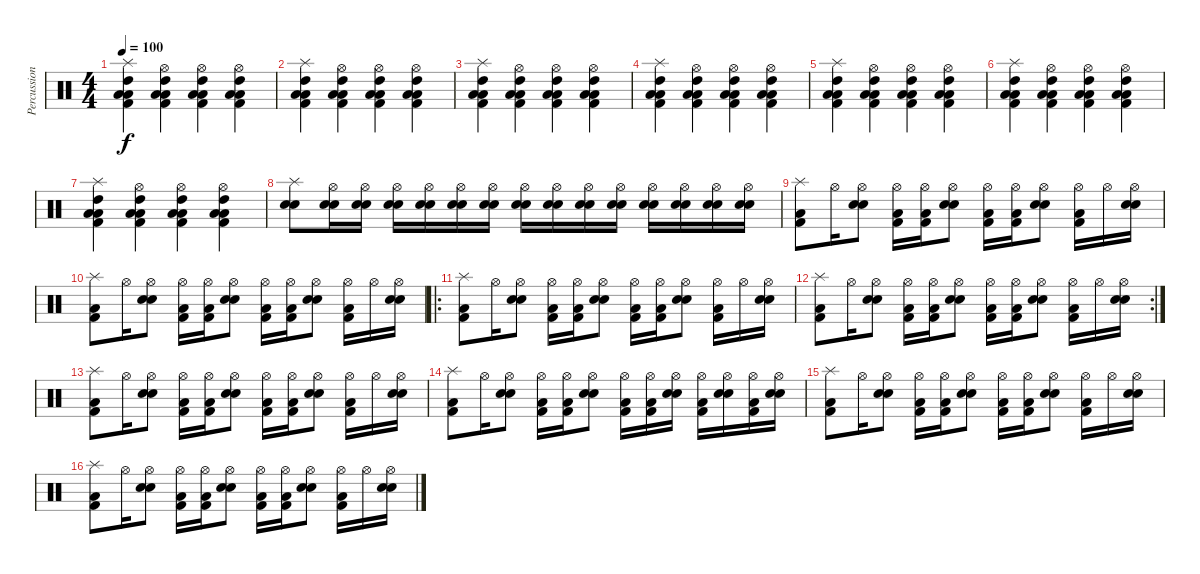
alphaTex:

\track ("Percussions" "Percussion") {instrument percussion}
\staff {score}
\articulation defaults
\ts (4 4)
\tempo 100
\clef neutral
\ks c
("Splash (hit)" "Kick (hit) 2" "Low Floor Tom (hit)" "High Tom (hit)" "Low Floor Tom (hit)").4{dy f} ("Hi-Hat (open)" "Kick (hit) 2" "Low Floor Tom (hit)" "High Tom (hit)" "Low Floor Tom (hit)").4 ("Hi-Hat (open)" "Kick (hit) 2" "Low Floor Tom (hit)" "High Tom (hit)" "Low Floor Tom (hit)").4 ("Hi-Hat (open)" "Kick (hit) 2" "Low Floor Tom (hit)" "High Tom (hit)" "Low Floor Tom (hit)").4 |
("Splash (hit)" "Kick (hit) 2" "Low Floor Tom (hit)" "High Tom (hit)" "Low Floor Tom (hit)").4 ("Hi-Hat (open)" "Kick (hit) 2" "Low Floor Tom (hit)" "High Tom (hit)" "Low Floor Tom (hit)").4 ("Hi-Hat (open)" "Kick (hit) 2" "Low Floor Tom (hit)" "High Tom (hit)" "Low Floor Tom (hit)").4 ("Hi-Hat (open)" "Kick (hit) 2" "Low Floor Tom (hit)" "High Tom (hit)" "Low Floor Tom (hit)").4 |
("Splash (hit)" "Kick (hit) 2" "Low Floor Tom (hit)" "High Tom (hit)" "Low Floor Tom (hit)").4 ("Hi-Hat (open)" "Kick (hit) 2" "Low Floor Tom (hit)" "High Tom (hit)" "Low Floor Tom (hit)").4 ("Hi-Hat (open)" "Kick (hit) 2" "Low Floor Tom (hit)" "High Tom (hit)" "Low Floor Tom (hit)").4 ("Hi-Hat (open)" "Kick (hit) 2" "Low Floor Tom (hit)" "High Tom (hit)" "Low Floor Tom (hit)").4 |
("Splash (hit)" "Kick (hit) 2" "Low Floor Tom (hit)" "High Tom (hit)" "Low Floor Tom (hit)").4 ("Hi-Hat (open)" "Kick (hit) 2" "Low Floor Tom (hit)" "High Tom (hit)" "Low Floor Tom (hit)").4 ("Hi-Hat (open)" "Kick (hit) 2" "Low Floor Tom (hit)" "High Tom (hit)" "Low Floor Tom (hit)").4 ("Hi-Hat (open)" "Kick (hit) 2" "Low Floor Tom (hit)" "High Tom (hit)" "Low Floor Tom (hit)").4 |
("Splash (hit)" "Kick (hit) 2" "Low Floor Tom (hit)" "High Tom (hit)" "Low Floor Tom (hit)").4 ("Hi-Hat (open)" "Kick (hit) 2" "Low Floor Tom (hit)" "High Tom (hit)" "Low Floor Tom (hit)").4 ("Hi-Hat (open)" "Kick (hit) 2" "Low Floor Tom (hit)" "High Tom (hit)" "Low Floor Tom (hit)").4 ("Hi-Hat (open)" "Kick (hit) 2" "Low Floor Tom (hit)" "High Tom (hit)" "Low Floor Tom (hit)").4 |
("Splash (hit)" "Kick (hit) 2" "Low Floor Tom (hit)" "High Tom (hit)" "Low Floor Tom (hit)").4 ("Hi-Hat (open)" "Kick (hit) 2" "Low Floor Tom (hit)" "High Tom (hit)" "Low Floor Tom (hit)").4 ("Hi-Hat (open)" "Kick (hit) 2" "Low Floor Tom (hit)" "High Tom (hit)" "Low Floor Tom (hit)").4 ("Hi-Hat (open)" "Kick (hit) 2" "Low Floor Tom (hit)" "High Tom (hit)" "Low Floor Tom (hit)").4 |
("Splash (hit)" "Kick (hit) 2" "Low Floor Tom (hit)" "High Tom (hit)" "Low Floor Tom (hit)").4 ("Hi-Hat (open)" "Kick (hit) 2" "Low Floor Tom (hit)" "High Tom (hit)" "Low Floor Tom (hit)").4 ("Hi-Hat (open)" "Kick (hit) 2" "Low Floor Tom (hit)" "High Tom (hit)" "Low Floor Tom (hit)").4 ("Hi-Hat (open)" "Kick (hit) 2" "Low Floor Tom (hit)" "High Tom (hit)" "Low Floor Tom (hit)").4 |
("Splash (hit)" "Snare (hit) 2" "Electric Snare (hit)").8 ("Hi-Hat (open)" "Snare (hit) 2" "Electric Snare (hit)").16 ("Hi-Hat (open)" "Snare (hit) 2" "Electric Snare (hit)").16 ("Hi-Hat (open)" "Snare (hit) 2" "Electric Snare (hit)").16 ("Hi-Hat (open)" "Snare (hit) 2" "Electric Snare (hit)").16 ("Hi-Hat (open)" "Snare (hit) 2" "Electric Snare (hit)").16 ("Hi-Hat (open)" "Snare (hit) 2" "Electric Snare (hit)").16 ("Hi-Hat (open)" "Snare (hit) 2" "Electric Snare (hit)").16 ("Hi-Hat (open)" "Snare (hit) 2" "Electric Snare (hit)").16 ("Hi-Hat (open)" "Snare (hit) 2" "Electric Snare (hit)").16 ("Hi-Hat (open)" "Snare (hit) 2" "Electric Snare (hit)").16 ("Hi-Hat (open)" "Snare (hit) 2" "Electric Snare (hit)").16 ("Hi-Hat (open)" "Snare (hit) 2" "Electric Snare (hit)").16 ("Hi-Hat (open)" "Snare (hit) 2" "Electric Snare (hit)").16 ("Hi-Hat (open)" "Snare (hit) 2" "Electric Snare (hit)").16 |
("Splash (hit)" "Kick (hit) 2" "Low Floor Tom (hit)").8 "Hi-Hat (open)".16 ("Hi-Hat (open)" "Snare (hit) 2" "Electric Snare (hit)").8 ("Hi-Hat (open)" "Kick (hit) 2" "Low Floor Tom (hit)").16 ("Hi-Hat (open)" "Kick (hit) 2" "Low Floor Tom (hit)").16 ("Hi-Hat (open)" "Snare (hit) 2" "Electric Snare (hit)").8 ("Hi-Hat (open)" "Kick (hit) 2" "Low Floor Tom (hit)").16 ("Hi-Hat (open)" "Kick (hit) 2" "Low Floor Tom (hit)").16 ("Hi-Hat (open)" "Snare (hit) 2" "Electric Snare (hit)").8 ("Hi-Hat (open)" "Kick (hit) 2" "Low Floor Tom (hit)").16 "Hi-Hat (open)".16 ("Hi-Hat (open)" "Snare (hit) 2" "Electric Snare (hit)").16 |
("Splash (hit)" "Kick (hit) 2" "Low Floor Tom (hit)").8 "Hi-Hat (open)".16 ("Hi-Hat (open)" "Snare (hit) 2" "Electric Snare (hit)").8 ("Hi-Hat (open)" "Kick (hit) 2" "Low Floor Tom (hit)").16 ("Hi-Hat (open)" "Kick (hit) 2" "Low Floor Tom (hit)").16 ("Hi-Hat (open)" "Snare (hit) 2" "Electric Snare (hit)").8 ("Hi-Hat (open)" "Kick (hit) 2" "Low Floor Tom (hit)").16 ("Hi-Hat (open)" "Kick (hit) 2" "Low Floor Tom (hit)").16 ("Hi-Hat (open)" "Snare (hit) 2" "Electric Snare (hit)").8 ("Hi-Hat (open)" "Kick (hit) 2" "Low Floor Tom (hit)").16 "Hi-Hat (open)".16 ("Hi-Hat (open)" "Snare (hit) 2" "Electric Snare (hit)").16 |
\ro
("Splash (hit)" "Kick (hit) 2" "Low Floor Tom (hit)").8 "Hi-Hat (open)".16 ("Hi-Hat (open)" "Snare (hit) 2" "Electric Snare (hit)").8 ("Hi-Hat (open)" "Kick (hit) 2" "Low Floor Tom (hit)").16 ("Hi-Hat (open)" "Kick (hit) 2" "Low Floor Tom (hit)").16 ("Hi-Hat (open)" "Snare (hit) 2" "Electric Snare (hit)").8 ("Hi-Hat (open)" "Kick (hit) 2" "Low Floor Tom (hit)").16 ("Hi-Hat (open)" "Kick (hit) 2" "Low Floor Tom (hit)").16 ("Hi-Hat (open)" "Snare (hit) 2" "Electric Snare (hit)").8 ("Hi-Hat (open)" "Kick (hit) 2" "Low Floor Tom (hit)").16 "Hi-Hat (open)".16 ("Hi-Hat (open)" "Snare (hit) 2" "Electric Snare (hit)").16 |
\rc 2
("Splash (hit)" "Kick (hit) 2" "Low Floor Tom (hit)").8 "Hi-Hat (open)".16 ("Hi-Hat (open)" "Snare (hit) 2" "Electric Snare (hit)").8 ("Hi-Hat (open)" "Kick (hit) 2" "Low Floor Tom (hit)").16 ("Hi-Hat (open)" "Kick (hit) 2" "Low Floor Tom (hit)").16 ("Hi-Hat (open)" "Snare (hit) 2" "Electric Snare (hit)").8 ("Hi-Hat (open)" "Kick (hit) 2" "Low Floor Tom (hit)").16 ("Hi-Hat (open)" "Kick (hit) 2" "Low Floor Tom (hit)").16 ("Hi-Hat (open)" "Snare (hit) 2" "Electric Snare (hit)").8 ("Hi-Hat (open)" "Kick (hit) 2" "Low Floor Tom (hit)").16 "Hi-Hat (open)".16 ("Hi-Hat (open)" "Snare (hit) 2" "Electric Snare (hit)").16 |
("Splash (hit)" "Kick (hit) 2" "Low Floor Tom (hit)").8 "Hi-Hat (open)".16 ("Hi-Hat (open)" "Snare (hit) 2" "Electric Snare (hit)").8 ("Hi-Hat (open)" "Kick (hit) 2" "Low Floor Tom (hit)").16 ("Hi-Hat (open)" "Kick (hit) 2" "Low Floor Tom (hit)").16 ("Hi-Hat (open)" "Snare (hit) 2" "Electric Snare (hit)").8 ("Hi-Hat (open)" "Kick (hit) 2" "Low Floor Tom (hit)").16 ("Hi-Hat (open)" "Kick (hit) 2" "Low Floor Tom (hit)").16 ("Hi-Hat (open)" "Snare (hit) 2" "Electric Snare (hit)").8 ("Hi-Hat (open)" "Kick (hit) 2" "Low Floor Tom (hit)").16 "Hi-Hat (open)".16 ("Hi-Hat (open)" "Snare (hit) 2" "Electric Snare (hit)").16 |
("Splash (hit)" "Kick (hit) 2" "Low Floor Tom (hit)").8 "Hi-Hat (open)".16 ("Hi-Hat (open)" "Snare (hit) 2" "Electric Snare (hit)").8 ("Hi-Hat (open)" "Kick (hit) 2" "Low Floor Tom (hit)").16 ("Hi-Hat (open)" "Kick (hit) 2" "Low Floor Tom (hit)").16 ("Hi-Hat (open)" "Snare (hit) 2" "Electric Snare (hit)").8 ("Hi-Hat (open)" "Kick (hit) 2" "Low Floor Tom (hit)").16 ("Hi-Hat (open)" "Kick (hit) 2" "Low Floor Tom (hit)").16 ("Hi-Hat (open)" "Snare (hit) 2" "Electric Snare (hit)").16 ("Hi-Hat (open)" "Kick (hit) 2" "Low Floor Tom (hit)").16 ("Hi-Hat (open)" "Snare (hit) 2" "Electric Snare (hit)").16 ("Hi-Hat (open)" "Kick (hit) 2" "Low Floor Tom (hit)").16 ("Hi-Hat (open)" "Snare (hit) 2" "Electric Snare (hit)").16 |
("Splash (hit)" "Kick (hit) 2" "Low Floor Tom (hit)").8 "Hi-Hat (open)".16 ("Hi-Hat (open)" "Snare (hit) 2" "Electric Snare (hit)").8 ("Hi-Hat (open)" "Kick (hit) 2" "Low Floor Tom (hit)").16 ("Hi-Hat (open)" "Kick (hit) 2" "Low Floor Tom (hit)").16 ("Hi-Hat (open)" "Snare (hit) 2" "Electric Snare (hit)").8 ("Hi-Hat (open)" "Kick (hit) 2" "Low Floor Tom (hit)").16 ("Hi-Hat (open)" "Kick (hit) 2" "Low Floor Tom (hit)").16 ("Hi-Hat (open)" "Snare (hit) 2" "Electric Snare (hit)").8 ("Hi-Hat (open)" "Kick (hit) 2" "Low Floor Tom (hit)").16 "Hi-Hat (open)".16 ("Hi-Hat (open)" "Snare (hit) 2" "Electric Snare (hit)").16 |
("Splash (hit)" "Kick (hit) 2" "Low Floor Tom (hit)").8 "Hi-Hat (open)".16 ("Hi-Hat (open)" "Snare (hit) 2" "Electric Snare (hit)").8 ("Hi-Hat (open)" "Kick (hit) 2" "Low Floor Tom (hit)").16 ("Hi-Hat (open)" "Kick (hit) 2" "Low Floor Tom (hit)").16 ("Hi-Hat (open)" "Snare (hit) 2" "Electric Snare (hit)").8 ("Hi-Hat (open)" "Kick (hit) 2" "Low Floor Tom (hit)").16 ("Hi-Hat (open)" "Kick (hit) 2" "Low Floor Tom (hit)").16 ("Hi-Hat (open)" "Snare (hit) 2" "Electric Snare (hit)").8 ("Hi-Hat (open)" "Kick (hit) 2" "Low Floor Tom (hit)").16 "Hi-Hat (open)".16 ("Hi-Hat (open)" "Snare (hit) 2" "Electric Snare (hit)").16
